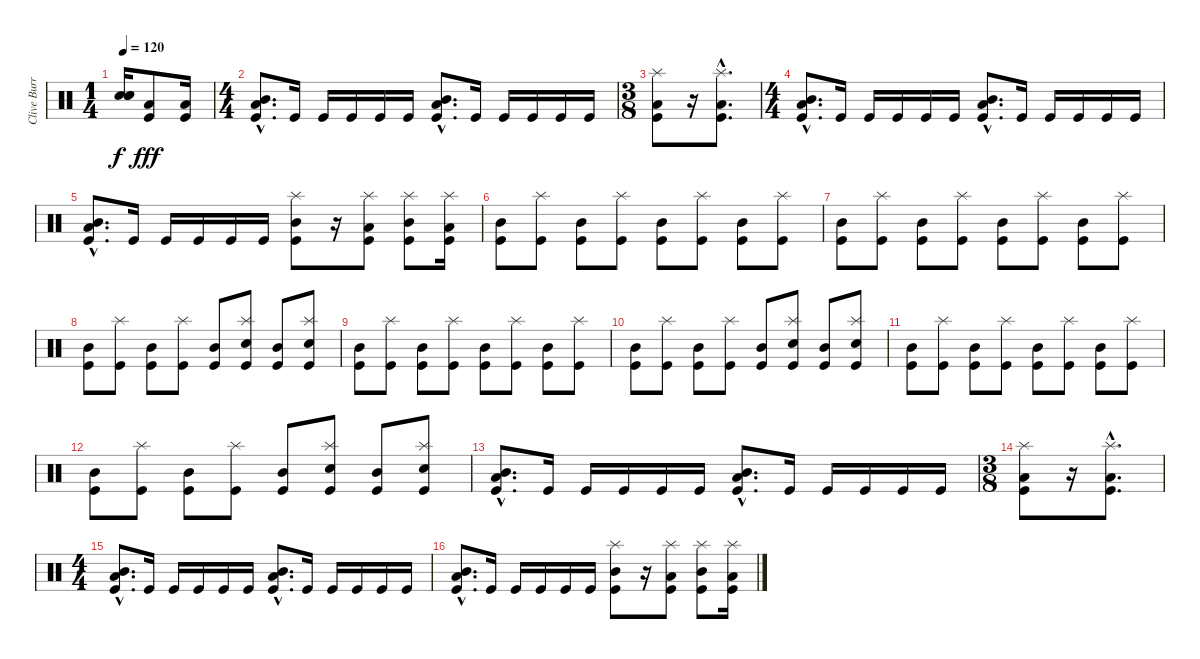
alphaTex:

\track ("Clive Burr" "Clive Burr") {instrument percussion}
\staff {score}
\articulation defaults
\ts (1 4)
\tempo 120
\clef neutral
\ks c
("Snare (hit)"{t} "Snare (hit)"{t} "Snare (hit)"{t}).16{dy f} ("Kick (hit)" "Low Floor Tom (hit)").8{dy fff} ("Kick (hit)" "Low Floor Tom (hit)").16 |
\ts (4 4)
("Kick (hit)"{hac} "Low Floor Tom (hit)"{hac} "Mid Tom (hit)"{hac}).8{d} "Kick (hit)".16 "Kick (hit)".16 "Kick (hit)".16 "Kick (hit)".16 "Kick (hit)".16 ("Kick (hit)"{hac} "Low Floor Tom (hit)"{hac} "Mid Tom (hit)"{hac}).8{d} "Kick (hit)".16 "Kick (hit)".16 "Kick (hit)".16 "Kick (hit)".16 "Kick (hit)".16 |
\ts (3 8)
("Kick (hit)" "Low Floor Tom (hit)" "Splash (hit)").8 r.16 ("Kick (hit)"{hac} "Low Floor Tom (hit)"{hac} "Splash (hit)"{hac}).8{d} |
\ts (4 4)
("Kick (hit)"{hac} "Low Floor Tom (hit)"{hac} "Mid Tom (hit)"{hac}).8{d} "Kick (hit)".16 "Kick (hit)".16 "Kick (hit)".16 "Kick (hit)".16 "Kick (hit)".16 ("Kick (hit)"{hac} "Low Floor Tom (hit)"{hac} "Mid Tom (hit)"{hac}).8{d} "Kick (hit)".16 "Kick (hit)".16 "Kick (hit)".16 "Kick (hit)".16 "Kick (hit)".16 |
("Kick (hit)"{hac} "Low Floor Tom (hit)"{hac} "Mid Tom (hit)"{hac}).8{d} "Kick (hit)".16 "Kick (hit)".16 "Kick (hit)".16 "Kick (hit)".16 "Kick (hit)".16 ("Kick (hit)" "Mid Tom (hit)" "Splash (hit)").8 r.16 ("Kick (hit)" "Low Floor Tom (hit)" "Splash (hit)").8 ("Kick (hit)" "Mid Tom (hit)" "Splash (hit)").8 ("Kick (hit)" "Low Floor Tom (hit)" "Splash (hit)").16 |
("Kick (hit)" "Mid Tom (hit)").8 ("Kick (hit)" "Splash (hit)").8 ("Kick (hit)" "Mid Tom (hit)").8 ("Kick (hit)" "Splash (hit)").8 ("Kick (hit)" "Mid Tom (hit)").8 ("Kick (hit)" "Splash (hit)").8 ("Kick (hit)" "Mid Tom (hit)").8 ("Kick (hit)" "Splash (hit)").8 |
("Kick (hit)" "Mid Tom (hit)").8 ("Kick (hit)" "Splash (hit)").8 ("Kick (hit)" "Mid Tom (hit)").8 ("Kick (hit)" "Splash (hit)").8 ("Kick (hit)" "Mid Tom (hit)").8 ("Kick (hit)" "Splash (hit)").8 ("Kick (hit)" "Mid Tom (hit)").8 ("Kick (hit)" "Splash (hit)").8 |
("Kick (hit)" "Mid Tom (hit)").8 ("Kick (hit)" "Splash (hit)").8 ("Kick (hit)" "Mid Tom (hit)").8 ("Kick (hit)" "Splash (hit)").8 ("Kick (hit)" "Mid Tom (hit)").8 ("Kick (hit)" "Splash (hit)" "Electric Snare (hit)").8 ("Kick (hit)" "Mid Tom (hit)").8 ("Kick (hit)" "Splash (hit)" "Electric Snare (hit)").8 |
("Kick (hit)" "Mid Tom (hit)").8 ("Kick (hit)" "Splash (hit)").8 ("Kick (hit)" "Mid Tom (hit)").8 ("Kick (hit)" "Splash (hit)").8 ("Kick (hit)" "Mid Tom (hit)").8 ("Kick (hit)" "Splash (hit)").8 ("Kick (hit)" "Mid Tom (hit)").8 ("Kick (hit)" "Splash (hit)").8 |
("Kick (hit)" "Mid Tom (hit)").8 ("Kick (hit)" "Splash (hit)").8 ("Kick (hit)" "Mid Tom (hit)").8 ("Kick (hit)" "Splash (hit)").8 ("Kick (hit)" "Mid Tom (hit)").8 ("Kick (hit)" "Splash (hit)" "Electric Snare (hit)").8 ("Kick (hit)" "Mid Tom (hit)").8 ("Kick (hit)" "Splash (hit)" "Electric Snare (hit)").8 |
("Kick (hit)" "Mid Tom (hit)").8 ("Kick (hit)" "Splash (hit)").8 ("Kick (hit)" "Mid Tom (hit)").8 ("Kick (hit)" "Splash (hit)").8 ("Kick (hit)" "Mid Tom (hit)").8 ("Kick (hit)" "Splash (hit)").8 ("Kick (hit)" "Mid Tom (hit)").8 ("Kick (hit)" "Splash (hit)").8 |
("Kick (hit)" "Mid Tom (hit)").8 ("Kick (hit)" "Splash (hit)").8 ("Kick (hit)" "Mid Tom (hit)").8 ("Kick (hit)" "Splash (hit)").8 ("Kick (hit)" "Mid Tom (hit)").8 ("Kick (hit)" "Splash (hit)" "Electric Snare (hit)").8 ("Kick (hit)" "Mid Tom (hit)").8 ("Kick (hit)" "Splash (hit)" "Electric Snare (hit)").8 |
("Kick (hit)"{hac} "Low Floor Tom (hit)"{hac} "Mid Tom (hit)"{hac}).8{d} "Kick (hit)".16 "Kick (hit)".16 "Kick (hit)".16 "Kick (hit)".16 "Kick (hit)".16 ("Kick (hit)"{hac} "Low Floor Tom (hit)"{hac} "Mid Tom (hit)"{hac}).8{d} "Kick (hit)".16 "Kick (hit)".16 "Kick (hit)".16 "Kick (hit)".16 "Kick (hit)".16 |
\ts (3 8)
("Kick (hit)" "Low Floor Tom (hit)" "Splash (hit)").8 r.16 ("Kick (hit)"{hac} "Low Floor Tom (hit)"{hac} "Splash (hit)"{hac}).8{d} |
\ts (4 4)
("Kick (hit)"{hac} "Low Floor Tom (hit)"{hac} "Mid Tom (hit)"{hac}).8{d} "Kick (hit)".16 "Kick (hit)".16 "Kick (hit)".16 "Kick (hit)".16 "Kick (hit)".16 ("Kick (hit)"{hac} "Low Floor Tom (hit)"{hac} "Mid Tom (hit)"{hac}).8{d} "Kick (hit)".16 "Kick (hit)".16 "Kick (hit)".16 "Kick (hit)".16 "Kick (hit)".16 |
("Kick (hit)"{hac} "Low Floor Tom (hit)"{hac} "Mid Tom (hit)"{hac}).8{d} "Kick (hit)".16 "Kick (hit)".16 "Kick (hit)".16 "Kick (hit)".16 "Kick (hit)".16 ("Kick (hit)" "Mid Tom (hit)" "Splash (hit)").8 r.16 ("Kick (hit)" "Low Floor Tom (hit)" "Splash (hit)").8 ("Kick (hit)" "Mid Tom (hit)" "Splash (hit)").8 ("Kick (hit)" "Low Floor Tom (hit)" "Splash (hit)").16
